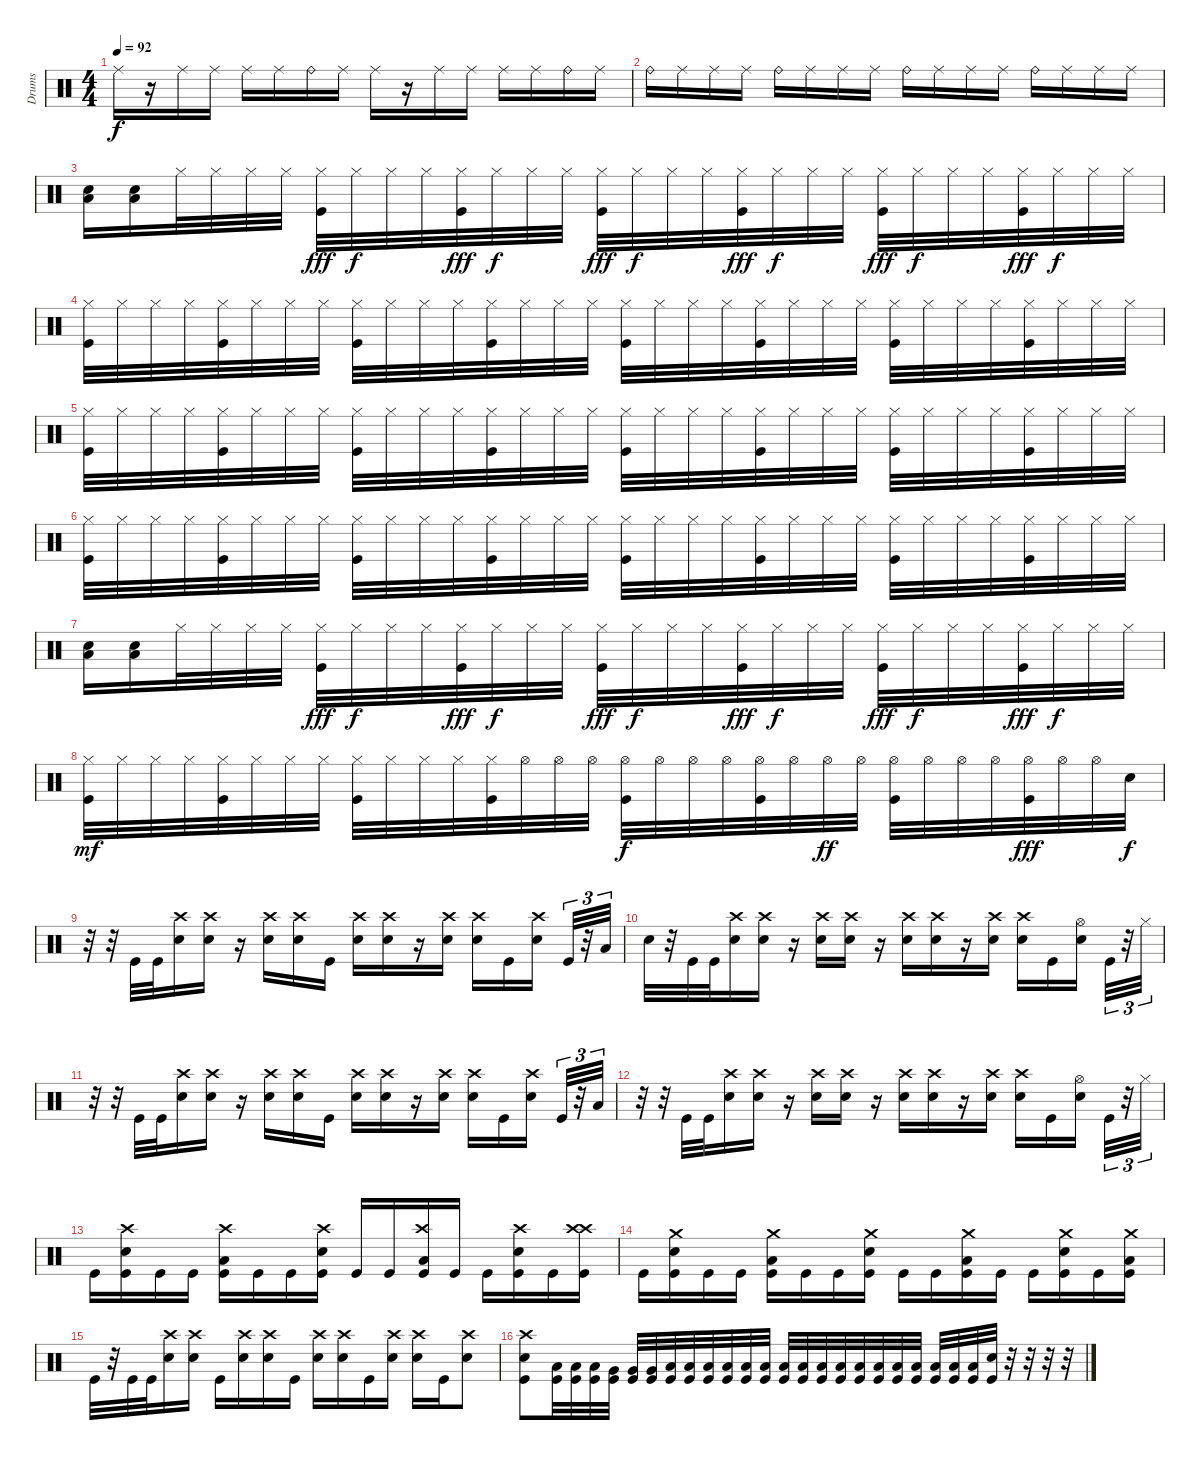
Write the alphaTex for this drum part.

\track ("Drums" "Drums") {instrument percussion}
\staff {score}
\articulation defaults
\ts (4 4)
\tempo 92
\clef neutral
\ks c "Ride (middle)".16{dy f}
r.16 "Ride (middle)".16 "Ride (middle)".16 "Ride (middle)".16 "Ride (middle)".16 "Ride (bell)".16 "Ride (middle)".16 "Ride (middle)".16 r.16 "Ride (middle)".16 "Ride (middle)".16 "Ride (middle)".16 "Ride (middle)".16 "Ride (bell)".16 "Ride (middle)".16 |
"Ride (bell)".16 "Ride (middle)".16 "Ride (middle)".16 "Ride (middle)".16 "Ride (bell)".16 "Ride (middle)".16 "Ride (middle)".16 "Ride (middle)".16 "Ride (bell)".16 "Ride (middle)".16 "Ride (middle)".16 "Ride (middle)".16 "Ride (bell)".16 "Ride (middle)".16 "Ride (middle)".16 "Ride (middle)".16 |
("Snare (hit) 2" "Low Floor Tom (hit)").16 ("Snare (hit) 2" "Low Floor Tom (hit)").16 "Hi-Hat (closed)".32 "Hi-Hat (closed)".32 "Hi-Hat (closed)".32 "Hi-Hat (closed)".32 ("Hi-Hat (closed)" "Kick (hit)").32{dy fff} "Hi-Hat (closed)".32{dy f} "Hi-Hat (closed)".32 "Hi-Hat (closed)".32 ("Hi-Hat (closed)" "Kick (hit)").32{dy fff} "Hi-Hat (closed)".32{dy f} "Hi-Hat (closed)".32 "Hi-Hat (closed)".32 ("Hi-Hat (closed)" "Kick (hit)").32{dy fff} "Hi-Hat (closed)".32{dy f} "Hi-Hat (closed)".32 "Hi-Hat (closed)".32 ("Hi-Hat (closed)" "Kick (hit)").32{dy fff} "Hi-Hat (closed)".32{dy f} "Hi-Hat (closed)".32 "Hi-Hat (closed)".32 ("Hi-Hat (closed)" "Kick (hit)").32{dy fff} "Hi-Hat (closed)".32{dy f} "Hi-Hat (closed)".32 "Hi-Hat (closed)".32 ("Hi-Hat (closed)" "Kick (hit)").32{dy fff} "Hi-Hat (closed)".32{dy f} "Hi-Hat (closed)".32 "Hi-Hat (closed)".32 |
("Hi-Hat (closed)" "Kick (hit)").32 "Hi-Hat (closed)".32 "Hi-Hat (closed)".32 "Hi-Hat (closed)".32 ("Hi-Hat (closed)" "Kick (hit)").32 "Hi-Hat (closed)".32 "Hi-Hat (closed)".32 "Hi-Hat (closed)".32 ("Hi-Hat (closed)" "Kick (hit)").32 "Hi-Hat (closed)".32 "Hi-Hat (closed)".32 "Hi-Hat (closed)".32 ("Hi-Hat (closed)" "Kick (hit)").32 "Hi-Hat (closed)".32 "Hi-Hat (closed)".32 "Hi-Hat (closed)".32 ("Hi-Hat (closed)" "Kick (hit)").32 "Hi-Hat (closed)".32 "Hi-Hat (closed)".32 "Hi-Hat (closed)".32 ("Hi-Hat (closed)" "Kick (hit)").32 "Hi-Hat (closed)".32 "Hi-Hat (closed)".32 "Hi-Hat (closed)".32 ("Hi-Hat (closed)" "Kick (hit)").32 "Hi-Hat (closed)".32 "Hi-Hat (closed)".32 "Hi-Hat (closed)".32 ("Hi-Hat (closed)" "Kick (hit)").32 "Hi-Hat (closed)".32 "Hi-Hat (closed)".32 "Hi-Hat (closed)".32 |
("Hi-Hat (closed)" "Kick (hit)").32 "Hi-Hat (closed)".32 "Hi-Hat (closed)".32 "Hi-Hat (closed)".32 ("Hi-Hat (closed)" "Kick (hit)").32 "Hi-Hat (closed)".32 "Hi-Hat (closed)".32 "Hi-Hat (closed)".32 ("Hi-Hat (closed)" "Kick (hit)").32 "Hi-Hat (closed)".32 "Hi-Hat (closed)".32 "Hi-Hat (closed)".32 ("Hi-Hat (closed)" "Kick (hit)").32 "Hi-Hat (closed)".32 "Hi-Hat (closed)".32 "Hi-Hat (closed)".32 ("Hi-Hat (closed)" "Kick (hit)").32 "Hi-Hat (closed)".32 "Hi-Hat (closed)".32 "Hi-Hat (closed)".32 ("Hi-Hat (closed)" "Kick (hit)").32 "Hi-Hat (closed)".32 "Hi-Hat (closed)".32 "Hi-Hat (closed)".32 ("Hi-Hat (closed)" "Kick (hit)").32 "Hi-Hat (closed)".32 "Hi-Hat (closed)".32 "Hi-Hat (closed)".32 ("Hi-Hat (closed)" "Kick (hit)").32 "Hi-Hat (closed)".32 "Hi-Hat (closed)".32 "Hi-Hat (closed)".32 |
("Hi-Hat (closed)" "Kick (hit)").32 "Hi-Hat (closed)".32 "Hi-Hat (closed)".32 "Hi-Hat (closed)".32 ("Hi-Hat (closed)" "Kick (hit)").32 "Hi-Hat (closed)".32 "Hi-Hat (closed)".32 "Hi-Hat (closed)".32 ("Hi-Hat (closed)" "Kick (hit)").32 "Hi-Hat (closed)".32 "Hi-Hat (closed)".32 "Hi-Hat (closed)".32 ("Hi-Hat (closed)" "Kick (hit)").32 "Hi-Hat (closed)".32 "Hi-Hat (closed)".32 "Hi-Hat (closed)".32 ("Hi-Hat (closed)" "Kick (hit)").32 "Hi-Hat (closed)".32 "Hi-Hat (closed)".32 "Hi-Hat (closed)".32 ("Hi-Hat (closed)" "Kick (hit)").32 "Hi-Hat (closed)".32 "Hi-Hat (closed)".32 "Hi-Hat (closed)".32 ("Hi-Hat (closed)" "Kick (hit)").32 "Hi-Hat (closed)".32 "Hi-Hat (closed)".32 "Hi-Hat (closed)".32 ("Hi-Hat (closed)" "Kick (hit)").32 "Hi-Hat (closed)".32 "Hi-Hat (closed)".32 "Hi-Hat (closed)".32 |
("Snare (hit) 2" "Low Floor Tom (hit)").16 ("Snare (hit) 2" "Low Floor Tom (hit)").16 "Hi-Hat (closed)".32 "Hi-Hat (closed)".32 "Hi-Hat (closed)".32 "Hi-Hat (closed)".32 ("Hi-Hat (closed)" "Kick (hit)").32{dy fff} "Hi-Hat (closed)".32{dy f} "Hi-Hat (closed)".32 "Hi-Hat (closed)".32 ("Hi-Hat (closed)" "Kick (hit)").32{dy fff} "Hi-Hat (closed)".32{dy f} "Hi-Hat (closed)".32 "Hi-Hat (closed)".32 ("Hi-Hat (closed)" "Kick (hit)").32{dy fff} "Hi-Hat (closed)".32{dy f} "Hi-Hat (closed)".32 "Hi-Hat (closed)".32 ("Hi-Hat (closed)" "Kick (hit)").32{dy fff} "Hi-Hat (closed)".32{dy f} "Hi-Hat (closed)".32 "Hi-Hat (closed)".32 ("Hi-Hat (closed)" "Kick (hit)").32{dy fff} "Hi-Hat (closed)".32{dy f} "Hi-Hat (closed)".32 "Hi-Hat (closed)".32 ("Hi-Hat (closed)" "Kick (hit)").32{dy fff} "Hi-Hat (closed)".32{dy f} "Hi-Hat (closed)".32 "Hi-Hat (closed)".32 |
("Hi-Hat (closed)" "Kick (hit)").32{dy mf} "Hi-Hat (closed)".32 "Hi-Hat (closed)".32 "Hi-Hat (closed)".32 ("Hi-Hat (closed)" "Kick (hit)").32 "Hi-Hat (closed)".32 "Hi-Hat (closed)".32 "Hi-Hat (closed)".32 ("Hi-Hat (closed)" "Kick (hit)").32 "Hi-Hat (closed)".32 "Hi-Hat (closed)".32 "Hi-Hat (closed)".32 ("Hi-Hat (closed)" "Kick (hit)").32 "Hi-Hat (open)".32 "Hi-Hat (open)".32 "Hi-Hat (open)".32 ("Hi-Hat (open)" "Kick (hit)").32{dy f} "Hi-Hat (open)".32 "Hi-Hat (open)".32 "Hi-Hat (open)".32 ("Hi-Hat (open)" "Kick (hit)").32 "Hi-Hat (open)".32 "Hi-Hat (open)".32{dy ff} "Hi-Hat (open)".32 ("Hi-Hat (open)" "Kick (hit)").32 "Hi-Hat (open)".32 "Hi-Hat (open)".32 "Hi-Hat (open)".32 ("Hi-Hat (open)" "Kick (hit)").32{dy fff} "Hi-Hat (open)".32 "Hi-Hat (open)".32 "Snare (hit) 2".32{dy f} |
r.32 r.32 "Kick (hit)".32 "Kick (hit)".32 ("Crash high (hit)" "Snare (hit) 2").16 ("Crash high (hit)" "Snare (hit) 2").16 r.16 ("Crash high (hit)" "Snare (hit) 2").16 ("Crash high (hit)" "Snare (hit) 2").16 "Kick (hit)".16 ("Crash high (hit)" "Snare (hit) 2").16 ("Crash high (hit)" "Snare (hit) 2").16 r.16 ("Crash high (hit)" "Snare (hit) 2").16 ("Crash high (hit)" "Snare (hit) 2").16 "Kick (hit)".16 ("Crash high (hit)" "Snare (hit) 2").16 "Kick (hit)".32{tu (3 2)} r.32{tu (3 2)} "Low Tom (hit)".32{tu (3 2)} |
"Snare (hit) 2".32 r.32 "Kick (hit)".32 "Kick (hit)".32 ("Crash high (hit)" "Snare (hit) 2").16 ("Crash high (hit)" "Snare (hit) 2").16 r.16 ("Crash high (hit)" "Snare (hit) 2").16 ("Crash high (hit)" "Snare (hit) 2").16 r.16 ("Crash high (hit)" "Snare (hit) 2").16 ("Crash high (hit)" "Snare (hit) 2").16 r.16 ("Crash high (hit)" "Snare (hit) 2").16 ("Crash high (hit)" "Snare (hit) 2").16 "Kick (hit)".16 ("Hi-Hat (open)" "Snare (hit) 2").16 "Kick (hit)".32{tu (3 2)} r.32{tu (3 2)} "Hi-Hat (closed)".32{tu (3 2)} |
r.32 r.32 "Kick (hit)".32 "Kick (hit)".32 ("Crash high (hit)" "Snare (hit) 2").16 ("Crash high (hit)" "Snare (hit) 2").16 r.16 ("Crash high (hit)" "Snare (hit) 2").16 ("Crash high (hit)" "Snare (hit) 2").16 "Kick (hit)".16 ("Crash high (hit)" "Snare (hit) 2").16 ("Crash high (hit)" "Snare (hit) 2").16 r.16 ("Crash high (hit)" "Snare (hit) 2").16 ("Crash high (hit)" "Snare (hit) 2").16 "Kick (hit)".16 ("Crash high (hit)" "Snare (hit) 2").16 "Kick (hit)".32{tu (3 2)} r.32{tu (3 2)} "Low Tom (hit)".32{tu (3 2)} |
r.32 r.32 "Kick (hit)".32 "Kick (hit)".32 ("Crash high (hit)" "Snare (hit) 2").16 ("Crash high (hit)" "Snare (hit) 2").16 r.16 ("Crash high (hit)" "Snare (hit) 2").16 ("Crash high (hit)" "Snare (hit) 2").16 r.16 ("Crash high (hit)" "Snare (hit) 2").16 ("Crash high (hit)" "Snare (hit) 2").16 r.16 ("Crash high (hit)" "Snare (hit) 2").16 ("Crash high (hit)" "Snare (hit) 2").16 "Kick (hit)".16 ("Hi-Hat (open)" "Snare (hit) 2").16 "Kick (hit)".32{tu (3 2)} r.32{tu (3 2)} "Hi-Hat (closed)".32{tu (3 2)} |
"Kick (hit)".16 ("Crash high (hit)" "Snare (hit) 2" "Kick (hit)").16 "Kick (hit)".16 "Kick (hit)".16 ("Crash high (hit)" "Low Tom (hit)" "Kick (hit)").16 "Kick (hit)".16 "Kick (hit)".16 ("Crash high (hit)" "Snare (hit) 2" "Kick (hit)").16 "Kick (hit)".16 "Kick (hit)".16 ("Crash high (hit)" "Low Tom (hit)" "Kick (hit)").16 "Kick (hit)".16 "Kick (hit)".16 ("Crash high (hit)" "Snare (hit) 2" "Kick (hit)").16 "Kick (hit)".16 ("Crash high (hit)" "Crash high (hit)" "Kick (hit)").16 |
"Kick (hit)".16 ("Crash medium (hit)" "Snare (hit) 2" "Kick (hit)").16 "Kick (hit)".16 "Kick (hit)".16 ("Crash medium (hit)" "Low Tom (hit)" "Kick (hit)").16 "Kick (hit)".16 "Kick (hit)".16 ("Crash medium (hit)" "Snare (hit) 2" "Kick (hit)").16 "Kick (hit)".16 "Kick (hit)".16 ("Crash medium (hit)" "Low Tom (hit)" "Kick (hit)").16 "Kick (hit)".16 "Kick (hit)".16 ("Crash medium (hit)" "Snare (hit) 2" "Kick (hit)").16 "Kick (hit)".16 ("Crash medium (hit)" "Low Tom (hit)" "Kick (hit)").16 |
"Kick (hit)".32 r.32 "Kick (hit)".32 "Kick (hit)".32 ("Crash high (hit)" "Snare (hit) 2").16 ("Crash high (hit)" "Snare (hit) 2").16 "Kick (hit)".16 ("Crash high (hit)" "Snare (hit) 2").16 ("Crash high (hit)" "Snare (hit) 2").16 "Kick (hit)".16 ("Crash high (hit)" "Snare (hit) 2").16 ("Crash high (hit)" "Snare (hit) 2").16 "Kick (hit)".16 ("Crash high (hit)" "Snare (hit) 2").16 ("Crash high (hit)" "Snare (hit) 2").16 "Kick (hit)".16 ("Crash high (hit)" "Snare (hit) 2").8 |
("Crash high (hit)" "Snare (hit) 2" "Kick (hit)").8 ("Low Tom (hit)" "Kick (hit)").32 ("Low Tom (hit)" "Kick (hit)").32 ("Low Tom (hit)" "Kick (hit)").32 ("Very Low Tom (hit)" "Kick (hit)").32 ("Very Low Tom (hit)" "Kick (hit)").32 ("Very Low Tom (hit)" "Kick (hit)").32 ("Low Floor Tom (hit)" "Kick (hit)").32 ("Low Floor Tom (hit)" "Kick (hit)").32 ("Low Floor Tom (hit)" "Kick (hit)").32 ("Low Floor Tom (hit)" "Kick (hit)").32 ("Low Floor Tom (hit)" "Kick (hit)").32 ("Low Floor Tom (hit)" "Kick (hit)").32 ("Low Floor Tom (hit)" "Kick (hit)").32 ("Low Floor Tom (hit)" "Kick (hit)").32 ("Low Floor Tom (hit)" "Kick (hit)").32 ("Low Floor Tom (hit)" "Kick (hit)").32 ("Low Floor Tom (hit)" "Kick (hit)").32 ("Low Floor Tom (hit)" "Kick (hit)").32 ("Low Floor Tom (hit)" "Kick (hit)").32 ("Low Floor Tom (hit)" "Kick (hit)").32 ("Low Floor Tom (hit)" "Kick (hit)").32 ("Low Floor Tom (hit)" "Kick (hit)").32 ("Low Floor Tom (hit)" "Kick (hit)").32 ("Snare (hit) 2" "Kick (hit)").32 r.32 r.32 r.32 r.32
